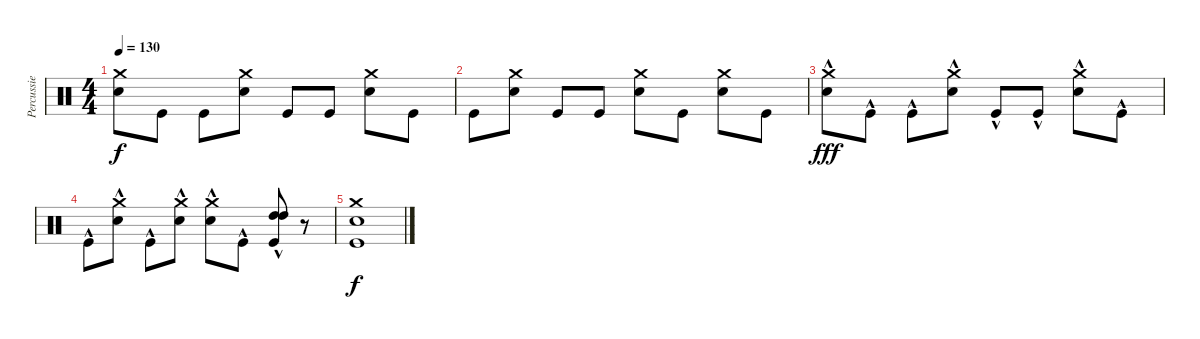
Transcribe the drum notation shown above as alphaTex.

\track ("Percussie" "Percussie") {instrument percussion}
\staff {score}
\articulation defaults
\ts (4 4)
\tempo 130
\clef neutral
\ks c
("Crash medium (hit)" "Snare (hit) 2").8{dy f} "Kick (hit)".8 "Kick (hit)".8 ("Crash medium (hit)" "Snare (hit) 2").8 "Kick (hit)".8 "Kick (hit)".8 ("Crash medium (hit)" "Snare (hit) 2").8 "Kick (hit)".8 |
"Kick (hit)".8 ("Crash medium (hit)" "Snare (hit) 2").8 "Kick (hit)".8 "Kick (hit)".8 ("Crash medium (hit)" "Snare (hit) 2").8 "Kick (hit)".8 ("Crash medium (hit)" "Snare (hit) 2").8 "Kick (hit)".8 |
("Crash medium (hit)"{hac} "Snare (hit) 2"{hac}).8{dy fff} "Kick (hit)"{hac}.8 "Kick (hit)"{hac}.8 ("Crash medium (hit)"{hac} "Snare (hit) 2"{hac}).8 "Kick (hit)"{hac}.8 "Kick (hit)"{hac}.8 ("Crash medium (hit)"{hac} "Snare (hit) 2"{hac}).8 "Kick (hit)"{hac}.8 |
"Kick (hit)"{hac}.8 ("Crash medium (hit)"{hac} "Snare (hit) 2"{hac}).8 "Kick (hit)"{hac}.8 ("Crash medium (hit)"{hac} "Snare (hit) 2"{hac}).8 ("Crash medium (hit)"{hac} "Snare (hit) 2"{hac}).8 "Kick (hit)"{hac}.8 ("High Tom (hit)"{hac} "High Tom (hit)"{hac} "Kick (hit)"{hac}).8{bd 480} r.8 |
("Crash medium (hit)" "Snare (hit) 2" "Kick (hit)").1{dy f}
